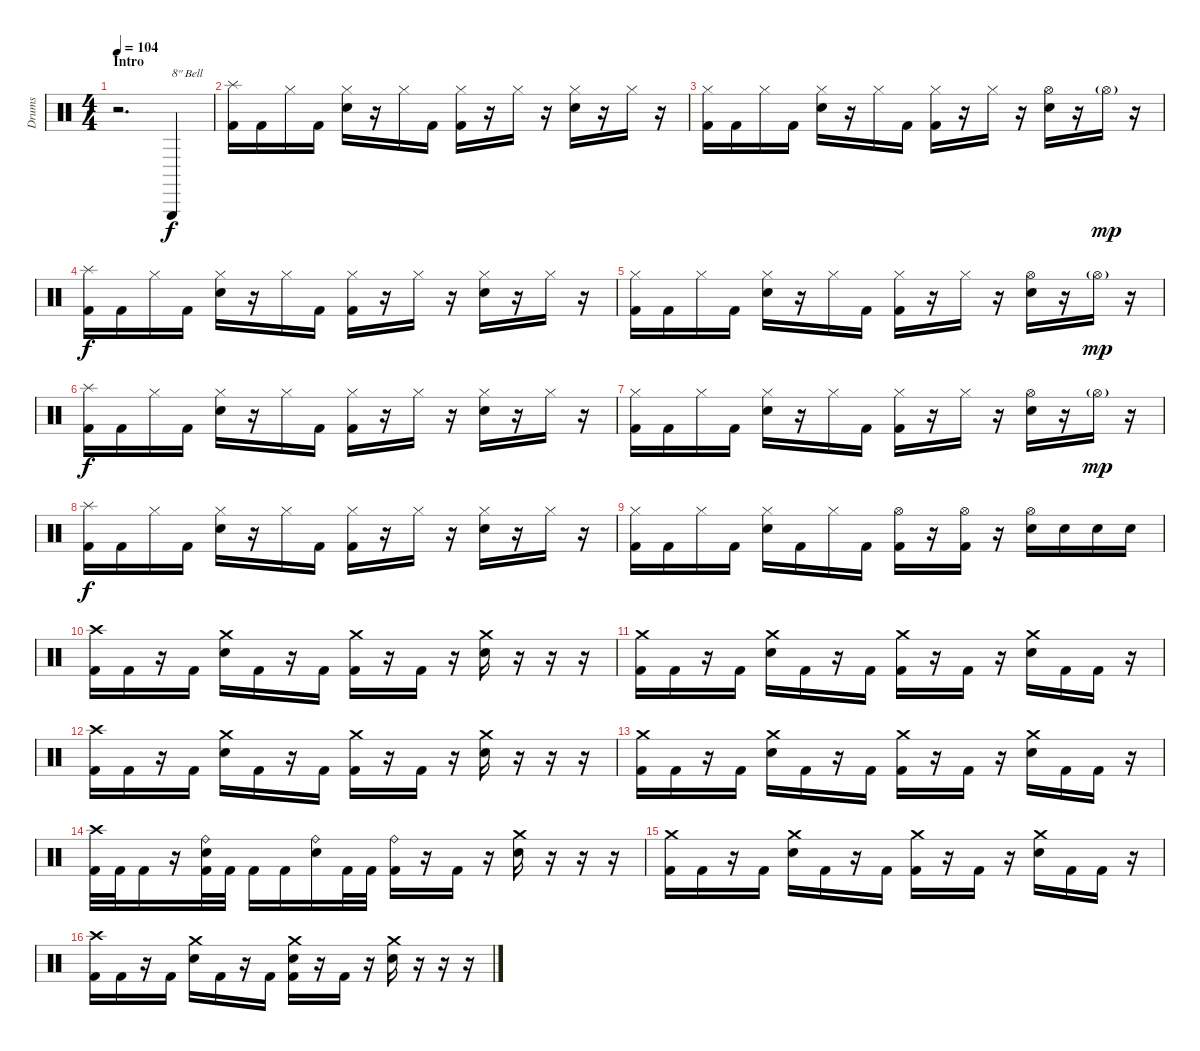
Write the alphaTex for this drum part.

\track ("Drums" "Drums") {instrument percussion}
\staff {score}
\articulation defaults
\ts (4 4)
\section ("" "Intro")
\tempo 104
\clef neutral
\ks c
r.2{d dy f} "Triangle (hit)".4{txt "8\" Bell"} |
("Splash (hit)" "Kick (hit) 2").16 "Kick (hit) 2".16 "Hi-Hat (closed)".16 "Kick (hit) 2".16 ("Hi-Hat (closed)" "Electric Snare (hit)").16 r.16 "Hi-Hat (closed)".16 "Kick (hit) 2".16 ("Hi-Hat (closed)" "Kick (hit) 2").16 r.16 "Hi-Hat (closed)".16 r.16 ("Hi-Hat (closed)" "Electric Snare (hit)").16 r.16 "Hi-Hat (closed)".16 r.16 |
("Hi-Hat (closed)" "Kick (hit) 2").16 "Kick (hit) 2".16 "Hi-Hat (closed)".16 "Kick (hit) 2".16 ("Hi-Hat (closed)" "Electric Snare (hit)").16 r.16 "Hi-Hat (closed)".16 "Kick (hit) 2".16 ("Hi-Hat (closed)" "Kick (hit) 2").16 r.16 "Hi-Hat (closed)".16 r.16 ("Hi-Hat (open)" "Electric Snare (hit)").16 r.16 "Hi-Hat (open)"{g}.16{dy mp} r.16 |
("Splash (hit)" "Kick (hit) 2").16{dy f} "Kick (hit) 2".16 "Hi-Hat (closed)".16 "Kick (hit) 2".16 ("Hi-Hat (closed)" "Electric Snare (hit)").16 r.16 "Hi-Hat (closed)".16 "Kick (hit) 2".16 ("Hi-Hat (closed)" "Kick (hit) 2").16 r.16 "Hi-Hat (closed)".16 r.16 ("Hi-Hat (closed)" "Electric Snare (hit)").16 r.16 "Hi-Hat (closed)".16 r.16 |
("Hi-Hat (closed)" "Kick (hit) 2").16 "Kick (hit) 2".16 "Hi-Hat (closed)".16 "Kick (hit) 2".16 ("Hi-Hat (closed)" "Electric Snare (hit)").16 r.16 "Hi-Hat (closed)".16 "Kick (hit) 2".16 ("Hi-Hat (closed)" "Kick (hit) 2").16 r.16 "Hi-Hat (closed)".16 r.16 ("Hi-Hat (open)" "Electric Snare (hit)").16 r.16 "Hi-Hat (open)"{g}.16{dy mp} r.16 |
("Splash (hit)" "Kick (hit) 2").16{dy f} "Kick (hit) 2".16 "Hi-Hat (closed)".16 "Kick (hit) 2".16 ("Hi-Hat (closed)" "Electric Snare (hit)").16 r.16 "Hi-Hat (closed)".16 "Kick (hit) 2".16 ("Hi-Hat (closed)" "Kick (hit) 2").16 r.16 "Hi-Hat (closed)".16 r.16 ("Hi-Hat (closed)" "Electric Snare (hit)").16 r.16 "Hi-Hat (closed)".16 r.16 |
("Hi-Hat (closed)" "Kick (hit) 2").16 "Kick (hit) 2".16 "Hi-Hat (closed)".16 "Kick (hit) 2".16 ("Hi-Hat (closed)" "Electric Snare (hit)").16 r.16 "Hi-Hat (closed)".16 "Kick (hit) 2".16 ("Hi-Hat (closed)" "Kick (hit) 2").16 r.16 "Hi-Hat (closed)".16 r.16 ("Hi-Hat (open)" "Electric Snare (hit)").16 r.16 "Hi-Hat (open)"{g}.16{dy mp} r.16 |
("Splash (hit)" "Kick (hit) 2").16{dy f} "Kick (hit) 2".16 "Hi-Hat (closed)".16 "Kick (hit) 2".16 ("Hi-Hat (closed)" "Electric Snare (hit)").16 r.16 "Hi-Hat (closed)".16 "Kick (hit) 2".16 ("Hi-Hat (closed)" "Kick (hit) 2").16 r.16 "Hi-Hat (closed)".16 r.16 ("Hi-Hat (closed)" "Electric Snare (hit)").16 r.16 "Hi-Hat (closed)".16 r.16 |
("Hi-Hat (closed)" "Kick (hit) 2").16 "Kick (hit) 2".16 "Hi-Hat (closed)".16 "Kick (hit) 2".16 ("Hi-Hat (closed)" "Electric Snare (hit)").16 "Kick (hit) 2".16 "Hi-Hat (closed)".16 "Kick (hit) 2".16 ("Hi-Hat (open)" "Kick (hit) 2").16 r.16 ("Hi-Hat (open)" "Kick (hit) 2").16 r.16 ("Hi-Hat (open)" "Electric Snare (hit)").16 "Electric Snare (hit)".16 "Electric Snare (hit)".16 "Electric Snare (hit)".16 |
("Crash high (hit)" "Kick (hit) 2").16 "Kick (hit) 2".16 r.16 "Kick (hit) 2".16 ("Crash medium (hit)" "Electric Snare (hit)").16 "Kick (hit) 2".16 r.16 "Kick (hit) 2".16 ("Crash medium (hit)" "Kick (hit) 2").16 r.16 "Kick (hit) 2".16 r.16 ("Crash medium (hit)" "Electric Snare (hit)").16 r.16 r.16 r.16 |
("Crash medium (hit)" "Kick (hit) 2").16 "Kick (hit) 2".16 r.16 "Kick (hit) 2".16 ("Crash medium (hit)" "Electric Snare (hit)").16 "Kick (hit) 2".16 r.16 "Kick (hit) 2".16 ("Crash medium (hit)" "Kick (hit) 2").16 r.16 "Kick (hit) 2".16 r.16 ("Crash medium (hit)" "Electric Snare (hit)").16 "Kick (hit) 2".16 "Kick (hit) 2".16 r.16 |
("Crash high (hit)" "Kick (hit) 2").16 "Kick (hit) 2".16 r.16 "Kick (hit) 2".16 ("Crash medium (hit)" "Electric Snare (hit)").16 "Kick (hit) 2".16 r.16 "Kick (hit) 2".16 ("Crash medium (hit)" "Kick (hit) 2").16 r.16 "Kick (hit) 2".16 r.16 ("Crash medium (hit)" "Electric Snare (hit)").16 r.16 r.16 r.16 |
("Crash medium (hit)" "Kick (hit) 2").16 "Kick (hit) 2".16 r.16 "Kick (hit) 2".16 ("Crash medium (hit)" "Electric Snare (hit)").16 "Kick (hit) 2".16 r.16 "Kick (hit) 2".16 ("Crash medium (hit)" "Kick (hit) 2").16 r.16 "Kick (hit) 2".16 r.16 ("Crash medium (hit)" "Electric Snare (hit)").16 "Kick (hit) 2".16 "Kick (hit) 2".16 r.16 |
("Crash high (hit)" "Kick (hit) 2").32 "Kick (hit) 2".32 "Kick (hit) 2".16 r.16 ("Ride (bell)" "Electric Snare (hit)" "Kick (hit) 2").32 "Kick (hit) 2".32 "Kick (hit) 2".16 "Kick (hit) 2".16 ("Ride (bell)" "Electric Snare (hit)").16 "Kick (hit) 2".32 "Kick (hit) 2".32 ("Ride (bell)" "Kick (hit) 2").16 r.16 "Kick (hit) 2".16 r.16 ("Crash medium (hit)" "Electric Snare (hit)").16 r.16 r.16 r.16 |
("Crash medium (hit)" "Kick (hit) 2").16 "Kick (hit) 2".16 r.16 "Kick (hit) 2".16 ("Crash medium (hit)" "Electric Snare (hit)").16 "Kick (hit) 2".16 r.16 "Kick (hit) 2".16 ("Crash medium (hit)" "Kick (hit) 2").16 r.16 "Kick (hit) 2".16 r.16 ("Crash medium (hit)" "Electric Snare (hit)").16 "Kick (hit) 2".16 "Kick (hit) 2".16 r.16 |
("Crash high (hit)" "Kick (hit) 2").16 "Kick (hit) 2".16 r.16 "Kick (hit) 2".16 ("Crash medium (hit)" "Electric Snare (hit)").16 "Kick (hit) 2".16 r.16 "Kick (hit) 2".16 ("Crash medium (hit)" "Electric Snare (hit)" "Kick (hit) 2").16 r.16 "Kick (hit) 2".16 r.16 ("Crash medium (hit)" "Electric Snare (hit)").16 r.16 r.16 r.16
